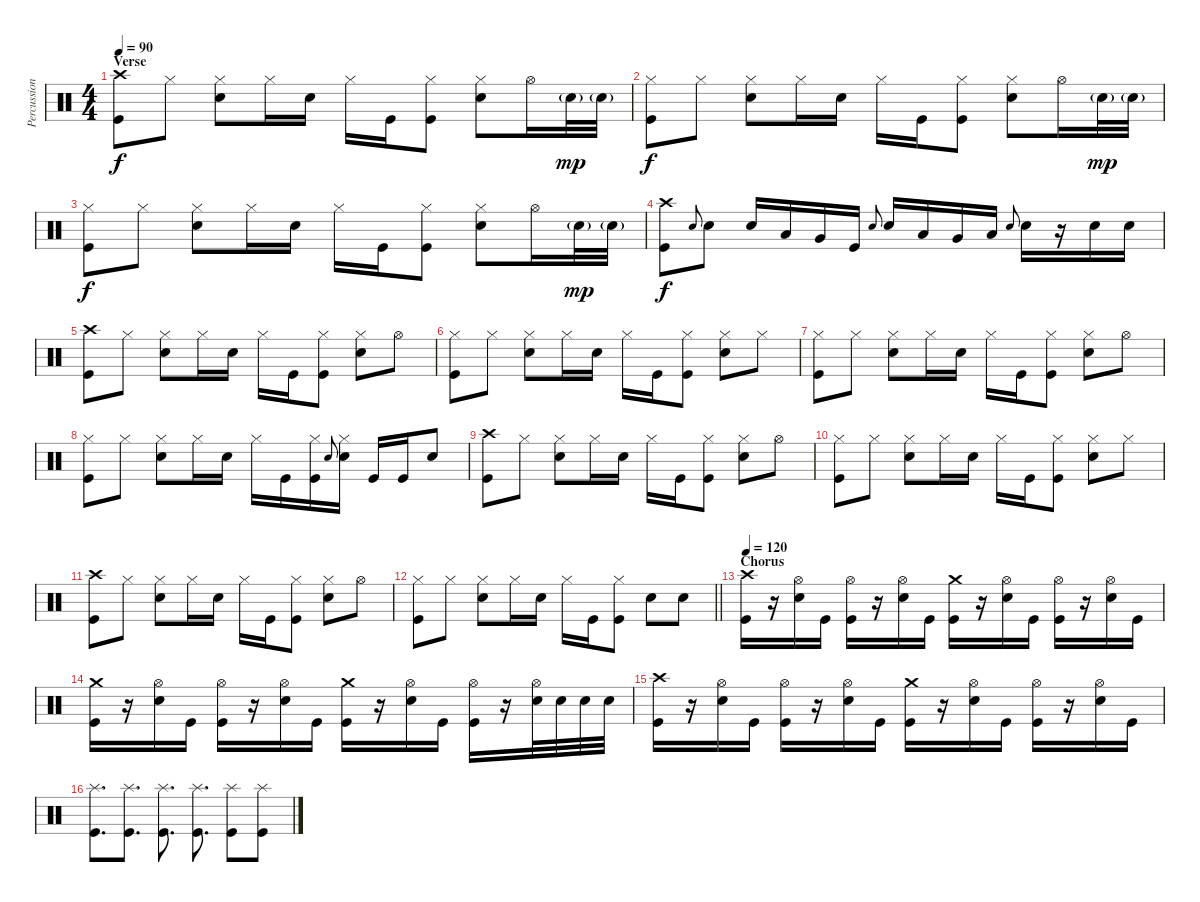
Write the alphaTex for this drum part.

\track ("Percussion" "Percussion") {instrument percussion}
\staff {score}
\articulation defaults
\ts (4 4)
\section ("" "Verse")
\tempo 90
\clef neutral
\ks c
("Crash high (hit)" "Kick (hit)").8{dy f} "Hi-Hat (closed)".8 ("Hi-Hat (closed)" "Electric Snare (hit)").8 "Hi-Hat (closed)".16 "Electric Snare (hit)".16 "Hi-Hat (closed)".16 "Kick (hit)".16 ("Hi-Hat (closed)" "Kick (hit)").8 ("Hi-Hat (closed)" "Electric Snare (hit)").8 "Hi-Hat (open)".16 "Electric Snare (hit)"{g}.32{dy mp} "Electric Snare (hit)"{g}.32 |
("Hi-Hat (closed)" "Kick (hit)").8{dy f} "Hi-Hat (closed)".8 ("Hi-Hat (closed)" "Electric Snare (hit)").8 "Hi-Hat (closed)".16 "Electric Snare (hit)".16 "Hi-Hat (closed)".16 "Kick (hit)".16 ("Hi-Hat (closed)" "Kick (hit)").8 ("Hi-Hat (closed)" "Electric Snare (hit)").8 "Hi-Hat (open)".16 "Electric Snare (hit)"{g}.32{dy mp} "Electric Snare (hit)"{g}.32 |
("Hi-Hat (closed)" "Kick (hit)").8{dy f} "Hi-Hat (closed)".8 ("Hi-Hat (closed)" "Electric Snare (hit)").8 "Hi-Hat (closed)".16 "Electric Snare (hit)".16 "Hi-Hat (closed)".16 "Kick (hit)".16 ("Hi-Hat (closed)" "Kick (hit)").8 ("Hi-Hat (closed)" "Electric Snare (hit)").8 "Hi-Hat (open)".16 "Electric Snare (hit)"{g}.32{dy mp} "Electric Snare (hit)"{g}.32 |
("Crash high (hit)" "Kick (hit)").8{dy f} "Electric Snare (hit)".8{gr onbeat} "Electric Snare (hit)".8 "Electric Snare (hit)".16 "Low Tom (hit)".16 "Very Low Tom (hit)".16 "Kick (hit)".16 "Electric Snare (hit)".8{gr onbeat} "Electric Snare (hit)".16 "Low Tom (hit)".16 "Very Low Tom (hit)".16 "Low Floor Tom (hit)".16 "Electric Snare (hit)".8{gr onbeat} "Electric Snare (hit)".16 r.16 "Electric Snare (hit)".16 "Electric Snare (hit)".16 |
("Crash high (hit)" "Kick (hit)").8 "Hi-Hat (closed)".8 ("Hi-Hat (closed)" "Electric Snare (hit)").8 "Hi-Hat (closed)".16 "Electric Snare (hit)".16 "Hi-Hat (closed)".16 "Kick (hit)".16 ("Hi-Hat (closed)" "Kick (hit)").8 ("Hi-Hat (closed)" "Electric Snare (hit)").8 "Hi-Hat (open)".8 |
("Hi-Hat (closed)" "Kick (hit)").8 "Hi-Hat (closed)".8 ("Hi-Hat (closed)" "Electric Snare (hit)").8 "Hi-Hat (closed)".16 "Electric Snare (hit)".16 "Hi-Hat (closed)".16 "Kick (hit)".16 ("Hi-Hat (closed)" "Kick (hit)").8 ("Hi-Hat (closed)" "Electric Snare (hit)").8 "Hi-Hat (closed)".8 |
("Hi-Hat (closed)" "Kick (hit)").8 "Hi-Hat (closed)".8 ("Hi-Hat (closed)" "Electric Snare (hit)").8 "Hi-Hat (closed)".16 "Electric Snare (hit)".16 "Hi-Hat (closed)".16 "Kick (hit)".16 ("Hi-Hat (closed)" "Kick (hit)").8 ("Hi-Hat (closed)" "Electric Snare (hit)").8 "Hi-Hat (open)".8 |
("Hi-Hat (closed)" "Kick (hit)").8 "Hi-Hat (closed)".8 ("Hi-Hat (closed)" "Electric Snare (hit)").8 "Hi-Hat (closed)".16 "Electric Snare (hit)".16 "Hi-Hat (closed)".16 "Kick (hit)".16 ("Hi-Hat (closed)" "Kick (hit)").16 "Electric Snare (hit)".8{gr onbeat} ("Hi-Hat (closed)" "Electric Snare (hit)").16 "Kick (hit)".16 "Kick (hit)".16 "Electric Snare (hit)".8 |
("Crash high (hit)" "Kick (hit)").8 "Hi-Hat (closed)".8 ("Hi-Hat (closed)" "Electric Snare (hit)").8 "Hi-Hat (closed)".16 "Electric Snare (hit)".16 "Hi-Hat (closed)".16 "Kick (hit)".16 ("Hi-Hat (closed)" "Kick (hit)").8 ("Hi-Hat (closed)" "Electric Snare (hit)").8 "Hi-Hat (open)".8 |
("Hi-Hat (closed)" "Kick (hit)").8 "Hi-Hat (closed)".8 ("Hi-Hat (closed)" "Electric Snare (hit)").8 "Hi-Hat (closed)".16 "Electric Snare (hit)".16 "Hi-Hat (closed)".16 "Kick (hit)".16 ("Hi-Hat (closed)" "Kick (hit)").8 ("Hi-Hat (closed)" "Electric Snare (hit)").8 "Hi-Hat (closed)".8 |
("Crash high (hit)" "Kick (hit)").8 "Hi-Hat (closed)".8 ("Hi-Hat (closed)" "Electric Snare (hit)").8 "Hi-Hat (closed)".16 "Electric Snare (hit)".16 "Hi-Hat (closed)".16 "Kick (hit)".16 ("Hi-Hat (closed)" "Kick (hit)").8 ("Hi-Hat (closed)" "Electric Snare (hit)").8 "Hi-Hat (open)".8 |
\barLineRight lightlight
("Hi-Hat (closed)" "Kick (hit)").8 "Hi-Hat (closed)".8 ("Hi-Hat (closed)" "Electric Snare (hit)").8 "Hi-Hat (closed)".16 "Electric Snare (hit)".16 "Hi-Hat (closed)".16 "Kick (hit)".16 ("Hi-Hat (closed)" "Kick (hit)").8 "Electric Snare (hit)".8 "Electric Snare (hit)".8 |
\section ("" "Chorus")
\tempo 120
("Crash high (hit)" "Kick (hit)").16 r.16 ("Hi-Hat (open)" "Electric Snare (hit)").16 "Kick (hit)".16 ("Hi-Hat (open)" "Kick (hit)").16 r.16 ("Hi-Hat (open)" "Electric Snare (hit)").16 "Kick (hit)".16 ("Crash medium (hit)" "Kick (hit)").16 r.16 ("Hi-Hat (open)" "Electric Snare (hit)").16 "Kick (hit)".16 ("Hi-Hat (open)" "Kick (hit)").16 r.16 ("Hi-Hat (open)" "Electric Snare (hit)").16 "Kick (hit)".16 |
("Crash medium (hit)" "Kick (hit)").16 r.16 ("Hi-Hat (open)" "Electric Snare (hit)").16 "Kick (hit)".16 ("Hi-Hat (open)" "Kick (hit)").16 r.16 ("Hi-Hat (open)" "Electric Snare (hit)").16 "Kick (hit)".16 ("Crash medium (hit)" "Kick (hit)").16 r.16 ("Hi-Hat (open)" "Electric Snare (hit)").16 "Kick (hit)".16 ("Hi-Hat (open)" "Kick (hit)").16 r.16 ("Hi-Hat (open)" "Electric Snare (hit)").32 "Electric Snare (hit)".32 "Electric Snare (hit)".32 "Electric Snare (hit)".32 |
("Crash high (hit)" "Kick (hit)").16 r.16 ("Hi-Hat (open)" "Electric Snare (hit)").16 "Kick (hit)".16 ("Hi-Hat (open)" "Kick (hit)").16 r.16 ("Hi-Hat (open)" "Electric Snare (hit)").16 "Kick (hit)".16 ("Crash medium (hit)" "Kick (hit)").16 r.16 ("Hi-Hat (open)" "Electric Snare (hit)").16 "Kick (hit)".16 ("Hi-Hat (open)" "Kick (hit)").16 r.16 ("Hi-Hat (open)" "Electric Snare (hit)").16 "Kick (hit)".16 |
("Splash (hit)" "Kick (hit)").8{d} ("Splash (hit)" "Kick (hit)").8{d} ("Splash (hit)" "Kick (hit)").8{d} ("Splash (hit)" "Kick (hit)").8{d} ("Splash (hit)" "Kick (hit)").8 ("Splash (hit)" "Kick (hit)").8
